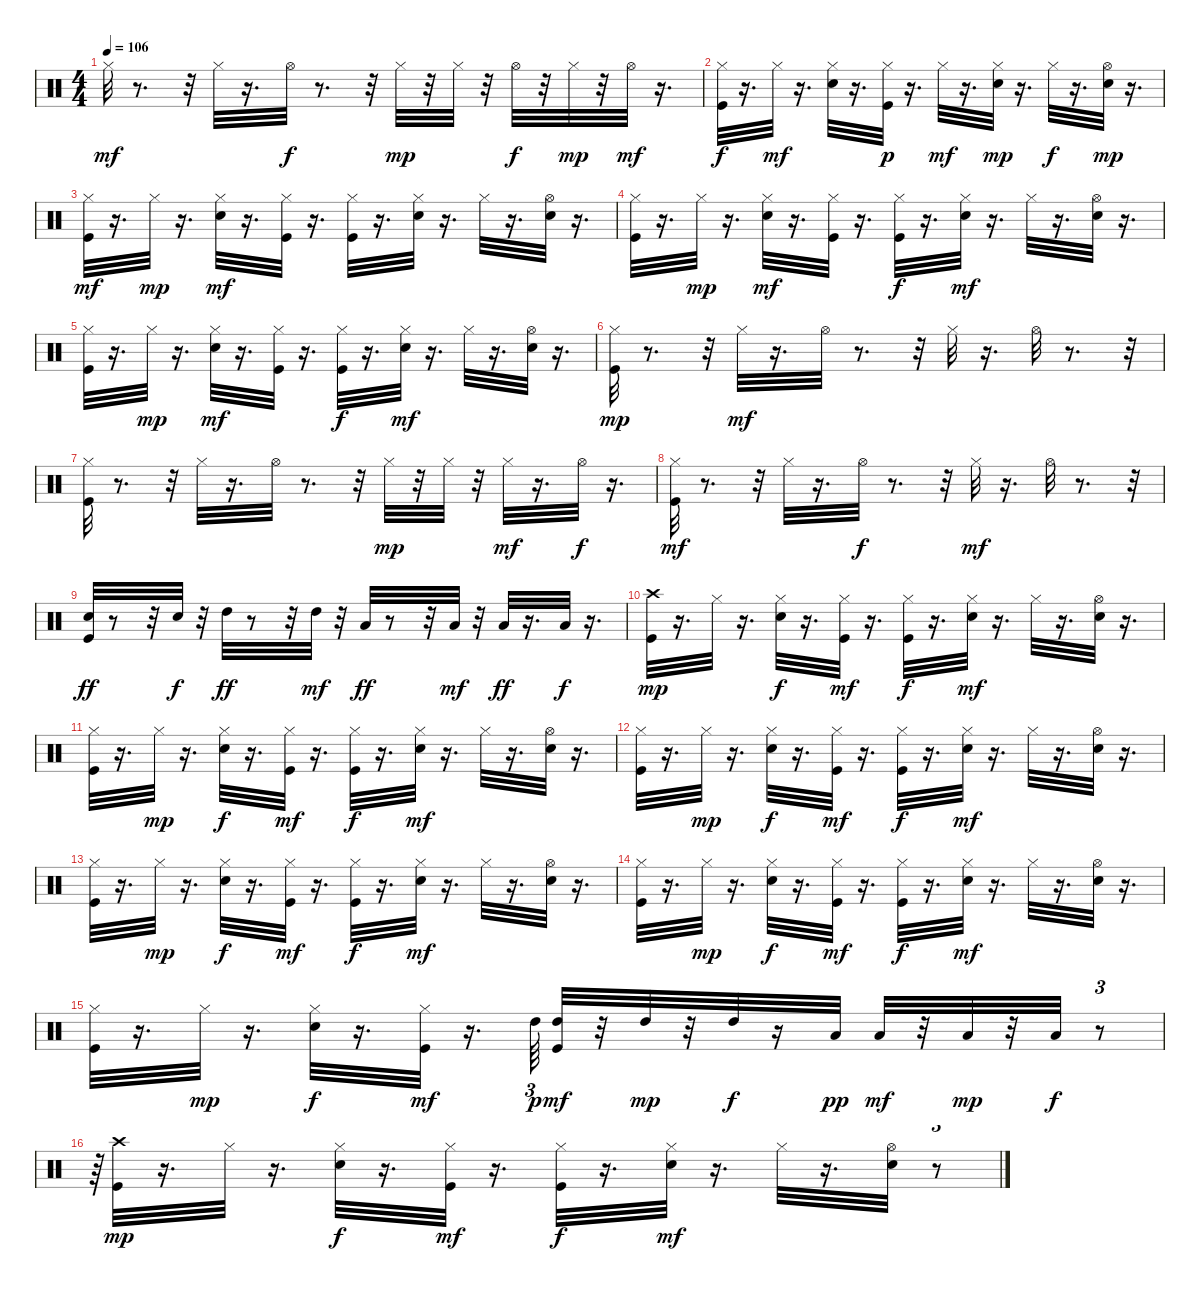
\track "" {instrument percussion}
\staff {score}
\articulation defaults
\ts (4 4)
\tempo 106
\clef neutral
\ks c "Hi-Hat (closed)".32{dy mf}
r.8{d} r.32 "Hi-Hat (closed)".32 r.16{d} "Hi-Hat (open)".32{dy f} r.8{d} r.32 "Hi-Hat (closed)".32{dy mp} r.32 "Hi-Hat (closed)".32 r.32 "Hi-Hat (open)".32{dy f} r.32 "Hi-Hat (closed)".32{dy mp} r.32 "Hi-Hat (open)".32{dy mf} r.16{d} |
("Kick (hit)" "Hi-Hat (closed)").32{dy f} r.16{d} "Hi-Hat (closed)".32{dy mf} r.16{d} ("Snare (hit) 2" "Hi-Hat (closed)").32 r.16{d} ("Kick (hit)" "Hi-Hat (closed)").32{dy p} r.16{d} "Hi-Hat (closed)".32{dy mf} r.16{d} ("Snare (hit) 2" "Hi-Hat (closed)").32{dy mp} r.16{d} "Hi-Hat (closed)".32{dy f} r.16{d} ("Snare (hit) 2" "Hi-Hat (open)").32{dy mp} r.16{d} |
("Kick (hit)" "Hi-Hat (closed)").32{dy mf} r.16{d} "Hi-Hat (closed)".32{dy mp} r.16{d} ("Snare (hit) 2" "Hi-Hat (closed)").32{dy mf} r.16{d} ("Kick (hit)" "Hi-Hat (closed)").32 r.16{d} ("Kick (hit)" "Hi-Hat (closed)").32 r.16{d} ("Snare (hit) 2" "Hi-Hat (closed)").32 r.16{d} "Hi-Hat (closed)".32 r.16{d} ("Snare (hit) 2" "Hi-Hat (open)").32 r.16{d} |
("Kick (hit)" "Hi-Hat (closed)").32 r.16{d} "Hi-Hat (closed)".32{dy mp} r.16{d} ("Snare (hit) 2" "Hi-Hat (closed)").32{dy mf} r.16{d} ("Kick (hit)" "Hi-Hat (closed)").32 r.16{d} ("Kick (hit)" "Hi-Hat (closed)").32{dy f} r.16{d} ("Snare (hit) 2" "Hi-Hat (closed)").32{dy mf} r.16{d} "Hi-Hat (closed)".32 r.16{d} ("Snare (hit) 2" "Hi-Hat (open)").32 r.16{d} |
("Kick (hit)" "Hi-Hat (closed)").32 r.16{d} "Hi-Hat (closed)".32{dy mp} r.16{d} ("Snare (hit) 2" "Hi-Hat (closed)").32{dy mf} r.16{d} ("Kick (hit)" "Hi-Hat (closed)").32 r.16{d} ("Kick (hit)" "Hi-Hat (closed)").32{dy f} r.16{d} ("Snare (hit) 2" "Hi-Hat (closed)").32{dy mf} r.16{d} "Hi-Hat (closed)".32 r.16{d} ("Snare (hit) 2" "Hi-Hat (open)").32 r.16{d} |
("Kick (hit)" "Hi-Hat (closed)").32{dy mp} r.8{d} r.32 "Hi-Hat (closed)".32{dy mf} r.16{d} "Hi-Hat (open)".32 r.8{d} r.32 "Hi-Hat (closed)".32 r.16{d} "Hi-Hat (open)".32 r.8{d} r.32 |
("Kick (hit)" "Hi-Hat (closed)").32 r.8{d} r.32 "Hi-Hat (closed)".32 r.16{d} "Hi-Hat (open)".32 r.8{d} r.32 "Hi-Hat (closed)".32{dy mp} r.32 "Hi-Hat (closed)".32 r.32 "Hi-Hat (closed)".32{dy mf} r.16{d} "Hi-Hat (open)".32{dy f} r.16{d} |
("Kick (hit)" "Hi-Hat (closed)").32{dy mf} r.8{d} r.32 "Hi-Hat (closed)".32 r.16{d} "Hi-Hat (open)".32{dy f} r.8{d} r.32 "Hi-Hat (closed)".32{dy mf} r.16{d} "Hi-Hat (open)".32 r.8{d} r.32 |
("Kick (hit)" "Snare (hit) 2").32{dy ff} r.8 r.32 "Snare (hit) 2".32{dy f} r.32 "High Tom (hit)".32{dy ff} r.8 r.32 "High Tom (hit)".32{dy mf} r.32 "Low Tom (hit)".32{dy ff} r.8 r.32 "Low Tom (hit)".32{dy mf} r.32 "Low Floor Tom (hit)".32{dy ff} r.16{d} "Low Floor Tom (hit)".32{dy f} r.16{d} |
("Kick (hit)" "Crash high (hit)").32{dy mp} r.16{d} "Hi-Hat (closed)".32 r.16{d} ("Snare (hit) 2" "Hi-Hat (closed)").32{dy f} r.16{d} ("Kick (hit)" "Hi-Hat (closed)").32{dy mf} r.16{d} ("Kick (hit)" "Hi-Hat (closed)").32{dy f} r.16{d} ("Snare (hit) 2" "Hi-Hat (closed)").32{dy mf} r.16{d} "Hi-Hat (closed)".32 r.16{d} ("Snare (hit) 2" "Hi-Hat (open)").32 r.16{d} |
("Kick (hit)" "Hi-Hat (closed)").32 r.16{d} "Hi-Hat (closed)".32{dy mp} r.16{d} ("Snare (hit) 2" "Hi-Hat (closed)").32{dy f} r.16{d} ("Kick (hit)" "Hi-Hat (closed)").32{dy mf} r.16{d} ("Kick (hit)" "Hi-Hat (closed)").32{dy f} r.16{d} ("Snare (hit) 2" "Hi-Hat (closed)").32{dy mf} r.16{d} "Hi-Hat (closed)".32 r.16{d} ("Snare (hit) 2" "Hi-Hat (open)").32 r.16{d} |
("Kick (hit)" "Hi-Hat (closed)").32 r.16{d} "Hi-Hat (closed)".32{dy mp} r.16{d} ("Snare (hit) 2" "Hi-Hat (closed)").32{dy f} r.16{d} ("Kick (hit)" "Hi-Hat (closed)").32{dy mf} r.16{d} ("Kick (hit)" "Hi-Hat (closed)").32{dy f} r.16{d} ("Snare (hit) 2" "Hi-Hat (closed)").32{dy mf} r.16{d} "Hi-Hat (closed)".32 r.16{d} ("Snare (hit) 2" "Hi-Hat (open)").32 r.16{d} |
("Kick (hit)" "Hi-Hat (closed)").32 r.16{d} "Hi-Hat (closed)".32{dy mp} r.16{d} ("Snare (hit) 2" "Hi-Hat (closed)").32{dy f} r.16{d} ("Kick (hit)" "Hi-Hat (closed)").32{dy mf} r.16{d} ("Kick (hit)" "Hi-Hat (closed)").32{dy f} r.16{d} ("Snare (hit) 2" "Hi-Hat (closed)").32{dy mf} r.16{d} "Hi-Hat (closed)".32 r.16{d} ("Snare (hit) 2" "Hi-Hat (open)").32 r.16{d} |
("Kick (hit)" "Hi-Hat (closed)").32 r.16{d} "Hi-Hat (closed)".32{dy mp} r.16{d} ("Snare (hit) 2" "Hi-Hat (closed)").32{dy f} r.16{d} ("Kick (hit)" "Hi-Hat (closed)").32{dy mf} r.16{d} ("Kick (hit)" "Hi-Hat (closed)").32{dy f} r.16{d} ("Snare (hit) 2" "Hi-Hat (closed)").32{dy mf} r.16{d} "Hi-Hat (closed)".32 r.16{d} ("Snare (hit) 2" "Hi-Hat (open)").32 r.16{d} |
("Kick (hit)" "Hi-Hat (closed)").32 r.16{d} "Hi-Hat (closed)".32{dy mp} r.16{d} ("Snare (hit) 2" "Hi-Hat (closed)").32{dy f} r.16{d} ("Kick (hit)" "Hi-Hat (closed)").32{dy mf} r.16{d} "High Tom (hit)".64{tu (3 2) dy p} ("Kick (hit)" "High Tom (hit)").32{dy mf} r.32 "High Tom (hit)".32{dy mp} r.32 "High Tom (hit)".32{dy f} r.16 "Low Tom (hit)".32{dy pp} "Low Tom (hit)".32{dy mf} r.32 "Low Tom (hit)".32{dy mp} r.32 "Low Tom (hit)".32{dy f} r.8{tu (3 2)} |
r.64{tu (3 2)} ("Kick (hit)" "Crash high (hit)").32{dy mp} r.16{d} "Hi-Hat (closed)".32 r.16{d} ("Snare (hit) 2" "Hi-Hat (closed)").32{dy f} r.16{d} ("Kick (hit)" "Hi-Hat (closed)").32{dy mf} r.16{d} ("Kick (hit)" "Hi-Hat (closed)").32{dy f} r.16{d} ("Snare (hit) 2" "Hi-Hat (closed)").32{dy mf} r.16{d} "Hi-Hat (closed)".32 r.16{d} ("Snare (hit) 2" "Hi-Hat (open)").32 r.8{tu (3 2)}
